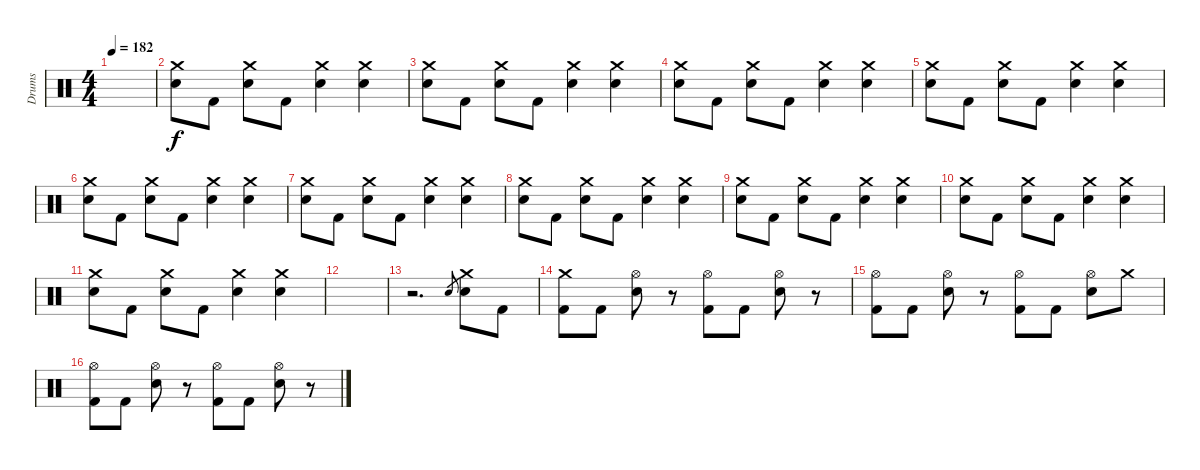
\track ("Drums" "Drums") {instrument percussion}
\staff {score}
\articulation defaults
\ts (4 4)
\tempo 182
\clef neutral
\ks c
|
("Crash medium (hit)" "Snare (hit) 2").8{dy f volume 14} "Kick (hit) 2".8 ("Crash medium (hit)" "Snare (hit) 2").8 "Kick (hit) 2".8 ("Crash medium (hit)" "Snare (hit) 2").4 ("Crash medium (hit)" "Snare (hit) 2").4 |
("Crash medium (hit)" "Snare (hit) 2").8 "Kick (hit) 2".8 ("Crash medium (hit)" "Snare (hit) 2").8 "Kick (hit) 2".8 ("Crash medium (hit)" "Snare (hit) 2").4 ("Crash medium (hit)" "Snare (hit) 2").4 |
("Crash medium (hit)" "Snare (hit) 2").8 "Kick (hit) 2".8 ("Crash medium (hit)" "Snare (hit) 2").8 "Kick (hit) 2".8 ("Crash medium (hit)" "Snare (hit) 2").4 ("Crash medium (hit)" "Snare (hit) 2").4 |
("Crash medium (hit)" "Snare (hit) 2").8 "Kick (hit) 2".8 ("Crash medium (hit)" "Snare (hit) 2").8 "Kick (hit) 2".8 ("Crash medium (hit)" "Snare (hit) 2").4 ("Crash medium (hit)" "Snare (hit) 2").4 |
("Crash medium (hit)" "Snare (hit) 2").8{volume 14} "Kick (hit) 2".8 ("Crash medium (hit)" "Snare (hit) 2").8 "Kick (hit) 2".8 ("Crash medium (hit)" "Snare (hit) 2").4 ("Crash medium (hit)" "Snare (hit) 2").4 |
("Crash medium (hit)" "Snare (hit) 2").8 "Kick (hit) 2".8 ("Crash medium (hit)" "Snare (hit) 2").8 "Kick (hit) 2".8 ("Crash medium (hit)" "Snare (hit) 2").4 ("Crash medium (hit)" "Snare (hit) 2").4 |
("Crash medium (hit)" "Snare (hit) 2").8 "Kick (hit) 2".8 ("Crash medium (hit)" "Snare (hit) 2").8 "Kick (hit) 2".8 ("Crash medium (hit)" "Snare (hit) 2").4 ("Crash medium (hit)" "Snare (hit) 2").4 |
("Crash medium (hit)" "Snare (hit) 2").8 "Kick (hit) 2".8 ("Crash medium (hit)" "Snare (hit) 2").8 "Kick (hit) 2".8 ("Crash medium (hit)" "Snare (hit) 2").4 ("Crash medium (hit)" "Snare (hit) 2").4 |
("Crash medium (hit)" "Snare (hit) 2").8 "Kick (hit) 2".8 ("Crash medium (hit)" "Snare (hit) 2").8 "Kick (hit) 2".8 ("Crash medium (hit)" "Snare (hit) 2").4 ("Crash medium (hit)" "Snare (hit) 2").4 |
("Crash medium (hit)" "Snare (hit) 2").8 "Kick (hit) 2".8 ("Crash medium (hit)" "Snare (hit) 2").8 "Kick (hit) 2".8 ("Crash medium (hit)" "Snare (hit) 2").4 ("Crash medium (hit)" "Snare (hit) 2").4 |
|
r.2{d} "Snare (hit) 2".8{gr} ("Crash medium (hit)" "Snare (hit) 2").8 "Kick (hit) 2".8 |
("Crash medium (hit)" "Kick (hit) 2").8 "Kick (hit) 2".8 ("Hi-Hat (open)" "Snare (hit) 2").8 r.8 ("Hi-Hat (open)" "Kick (hit) 2").8 "Kick (hit) 2".8 ("Hi-Hat (open)" "Snare (hit) 2").8 r.8 |
("Hi-Hat (open)" "Kick (hit) 2").8 "Kick (hit) 2".8 ("Hi-Hat (open)" "Snare (hit) 2").8 r.8 ("Hi-Hat (open)" "Kick (hit) 2").8 "Kick (hit) 2".8 ("Hi-Hat (open)" "Snare (hit) 2").8 "Crash medium (hit)".8 |
("Hi-Hat (open)" "Kick (hit) 2").8 "Kick (hit) 2".8 ("Hi-Hat (open)" "Snare (hit) 2").8 r.8 ("Hi-Hat (open)" "Kick (hit) 2").8 "Kick (hit) 2".8 ("Hi-Hat (open)" "Snare (hit) 2").8 r.8
